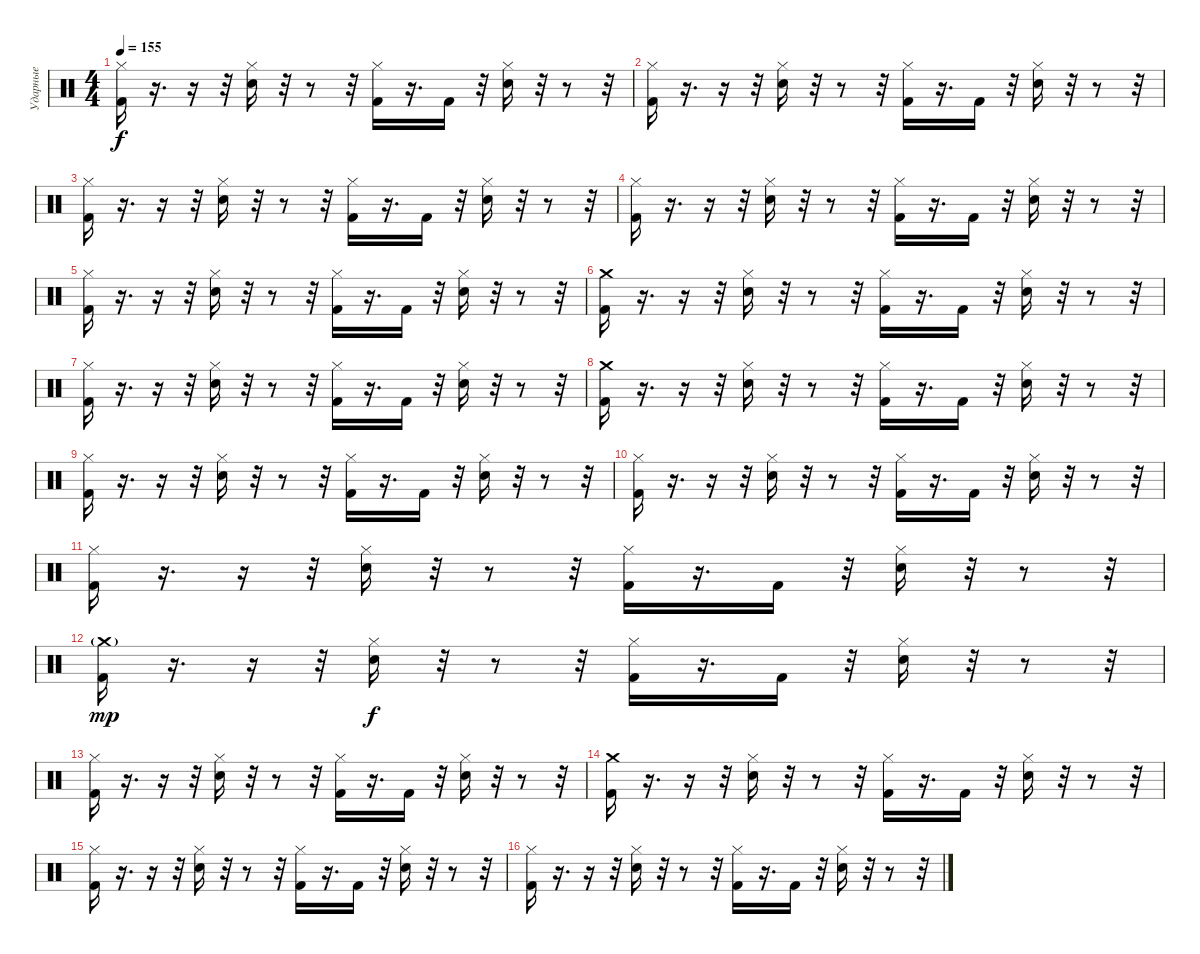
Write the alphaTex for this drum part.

\track ("Ударные" "Ударные") {instrument percussion}
\staff {score}
\articulation defaults
\ts (4 4)
\tempo 155
\clef neutral
\ks c
("Hi-Hat (closed)" "Kick (hit) 2").16{dy f} r.16{d} r.16 r.32 ("Snare (hit) 2" "Hi-Hat (closed)").16 r.32 r.8 r.32 ("Hi-Hat (closed)" "Kick (hit) 2").16 r.16{d} "Kick (hit) 2".16 r.32 ("Snare (hit) 2" "Hi-Hat (closed)").16 r.32 r.8 r.32 |
("Hi-Hat (closed)" "Kick (hit) 2").16 r.16{d} r.16 r.32 ("Snare (hit) 2" "Hi-Hat (closed)").16 r.32 r.8 r.32 ("Hi-Hat (closed)" "Kick (hit) 2").16 r.16{d} "Kick (hit) 2".16 r.32 ("Snare (hit) 2" "Hi-Hat (closed)").16 r.32 r.8 r.32 |
("Hi-Hat (closed)" "Kick (hit) 2").16 r.16{d} r.16 r.32 ("Snare (hit) 2" "Hi-Hat (closed)").16 r.32 r.8 r.32 ("Hi-Hat (closed)" "Kick (hit) 2").16 r.16{d} "Kick (hit) 2".16 r.32 ("Snare (hit) 2" "Hi-Hat (closed)").16 r.32 r.8 r.32 |
("Hi-Hat (closed)" "Kick (hit) 2").16 r.16{d} r.16 r.32 ("Snare (hit) 2" "Hi-Hat (closed)").16 r.32 r.8 r.32 ("Hi-Hat (closed)" "Kick (hit) 2").16 r.16{d} "Kick (hit) 2".16 r.32 ("Snare (hit) 2" "Hi-Hat (closed)").16 r.32 r.8 r.32 |
("Hi-Hat (closed)" "Kick (hit) 2").16 r.16{d} r.16 r.32 ("Snare (hit) 2" "Hi-Hat (closed)").16 r.32 r.8 r.32 ("Hi-Hat (closed)" "Kick (hit) 2").16 r.16{d} "Kick (hit) 2".16 r.32 ("Snare (hit) 2" "Hi-Hat (closed)").16 r.32 r.8 r.32 |
("Crash medium (hit)" "Kick (hit) 2").16 r.16{d} r.16 r.32 ("Snare (hit) 2" "Hi-Hat (closed)").16 r.32 r.8 r.32 ("Hi-Hat (closed)" "Kick (hit) 2").16 r.16{d} "Kick (hit) 2".16 r.32 ("Snare (hit) 2" "Hi-Hat (closed)").16 r.32 r.8 r.32 |
("Hi-Hat (closed)" "Kick (hit) 2").16 r.16{d} r.16 r.32 ("Snare (hit) 2" "Hi-Hat (closed)").16 r.32 r.8 r.32 ("Hi-Hat (closed)" "Kick (hit) 2").16 r.16{d} "Kick (hit) 2".16 r.32 ("Snare (hit) 2" "Hi-Hat (closed)").16 r.32 r.8 r.32 |
("Crash medium (hit)" "Kick (hit) 2").16 r.16{d} r.16 r.32 ("Snare (hit) 2" "Hi-Hat (closed)").16 r.32 r.8 r.32 ("Hi-Hat (closed)" "Kick (hit) 2").16 r.16{d} "Kick (hit) 2".16 r.32 ("Snare (hit) 2" "Hi-Hat (closed)").16 r.32 r.8 r.32 |
("Hi-Hat (closed)" "Kick (hit) 2").16 r.16{d} r.16 r.32 ("Snare (hit) 2" "Hi-Hat (closed)").16 r.32 r.8 r.32 ("Hi-Hat (closed)" "Kick (hit) 2").16 r.16{d} "Kick (hit) 2".16 r.32 ("Snare (hit) 2" "Hi-Hat (closed)").16 r.32 r.8 r.32 |
("Hi-Hat (closed)" "Kick (hit) 2").16 r.16{d} r.16 r.32 ("Snare (hit) 2" "Hi-Hat (closed)").16 r.32 r.8 r.32 ("Hi-Hat (closed)" "Kick (hit) 2").16 r.16{d} "Kick (hit) 2".16 r.32 ("Snare (hit) 2" "Hi-Hat (closed)").16 r.32 r.8 r.32 |
("Hi-Hat (closed)" "Kick (hit) 2").16 r.16{d} r.16 r.32 ("Snare (hit) 2" "Hi-Hat (closed)").16 r.32 r.8 r.32 ("Hi-Hat (closed)" "Kick (hit) 2").16 r.16{d} "Kick (hit) 2".16 r.32 ("Snare (hit) 2" "Hi-Hat (closed)").16 r.32 r.8 r.32 |
("Crash medium (hit)"{g} "Kick (hit) 2").16{dy mp} r.16{d} r.16 r.32 ("Snare (hit) 2" "Hi-Hat (closed)").16{dy f} r.32 r.8 r.32 ("Hi-Hat (closed)" "Kick (hit) 2").16 r.16{d} "Kick (hit) 2".16 r.32 ("Snare (hit) 2" "Hi-Hat (closed)").16 r.32 r.8 r.32 |
("Hi-Hat (closed)" "Kick (hit) 2").16 r.16{d} r.16 r.32 ("Snare (hit) 2" "Hi-Hat (closed)").16 r.32 r.8 r.32 ("Hi-Hat (closed)" "Kick (hit) 2").16 r.16{d} "Kick (hit) 2".16 r.32 ("Snare (hit) 2" "Hi-Hat (closed)").16 r.32 r.8 r.32 |
("Crash medium (hit)" "Kick (hit) 2").16 r.16{d} r.16 r.32 ("Snare (hit) 2" "Hi-Hat (closed)").16 r.32 r.8 r.32 ("Hi-Hat (closed)" "Kick (hit) 2").16 r.16{d} "Kick (hit) 2".16 r.32 ("Snare (hit) 2" "Hi-Hat (closed)").16 r.32 r.8 r.32 |
("Hi-Hat (closed)" "Kick (hit) 2").16 r.16{d} r.16 r.32 ("Snare (hit) 2" "Hi-Hat (closed)").16 r.32 r.8 r.32 ("Hi-Hat (closed)" "Kick (hit) 2").16 r.16{d} "Kick (hit) 2".16 r.32 ("Snare (hit) 2" "Hi-Hat (closed)").16 r.32 r.8 r.32 |
("Hi-Hat (closed)" "Kick (hit) 2").16 r.16{d} r.16 r.32 ("Snare (hit) 2" "Hi-Hat (closed)").16 r.32 r.8 r.32 ("Hi-Hat (closed)" "Kick (hit) 2").16 r.16{d} "Kick (hit) 2".16 r.32 ("Snare (hit) 2" "Hi-Hat (closed)").16 r.32 r.8 r.32
